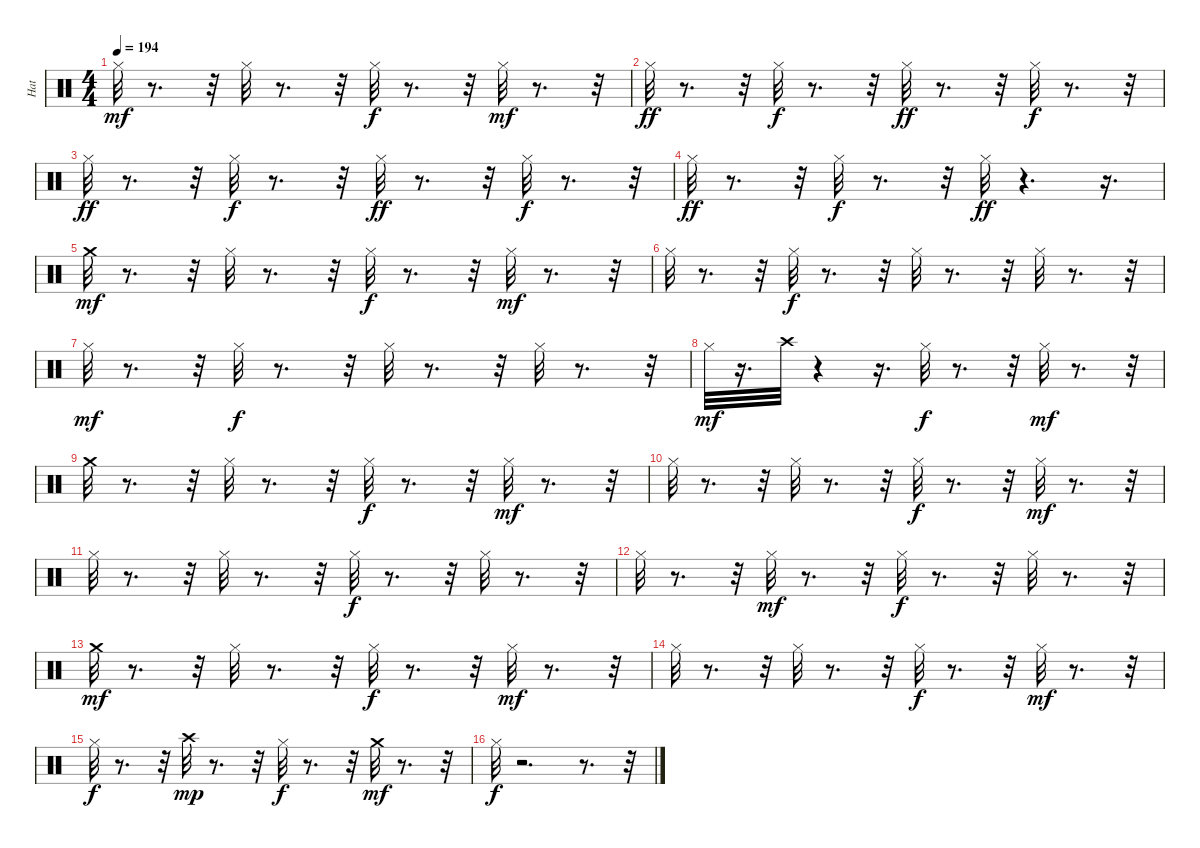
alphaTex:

\track ("Hat" "Hat") {instrument percussion}
\staff {score}
\articulation defaults
\ts (4 4)
\tempo 194
\clef neutral
\ks c "Hi-Hat (closed)".32{dy mf}
r.8{d} r.32 "Hi-Hat (closed)".32 r.8{d} r.32 "Hi-Hat (closed)".32{dy f} r.8{d} r.32 "Hi-Hat (closed)".32{dy mf} r.8{d} r.32 |
"Hi-Hat (closed)".32{dy ff} r.8{d} r.32 "Hi-Hat (closed)".32{dy f} r.8{d} r.32 "Hi-Hat (closed)".32{dy ff} r.8{d} r.32 "Hi-Hat (closed)".32{dy f} r.8{d} r.32 |
"Hi-Hat (closed)".32{dy ff} r.8{d} r.32 "Hi-Hat (closed)".32{dy f} r.8{d} r.32 "Hi-Hat (closed)".32{dy ff} r.8{d} r.32 "Hi-Hat (closed)".32{dy f} r.8{d} r.32 |
"Hi-Hat (closed)".32{dy ff} r.8{d} r.32 "Hi-Hat (closed)".32{dy f} r.8{d} r.32 "Hi-Hat (closed)".32{dy ff} r.4{d} r.16{d} |
"Crash medium (hit)".32{dy mf} r.8{d} r.32 "Hi-Hat (closed)".32 r.8{d} r.32 "Hi-Hat (closed)".32{dy f} r.8{d} r.32 "Hi-Hat (closed)".32{dy mf} r.8{d} r.32 |
"Hi-Hat (closed)".32 r.8{d} r.32 "Hi-Hat (closed)".32{dy f} r.8{d} r.32 "Hi-Hat (closed)".32 r.8{d} r.32 "Hi-Hat (closed)".32 r.8{d} r.32 |
"Hi-Hat (closed)".32{dy mf} r.8{d} r.32 "Hi-Hat (closed)".32{dy f} r.8{d} r.32 "Hi-Hat (closed)".32 r.8{d} r.32 "Hi-Hat (closed)".32 r.8{d} r.32 |
"Hi-Hat (closed)".32{dy mf} r.16{d} "Crash high (hit)".32 r.4 r.16{d} "Hi-Hat (closed)".32{dy f} r.8{d} r.32 "Hi-Hat (closed)".32{dy mf} r.8{d} r.32 |
"Crash medium (hit)".32 r.8{d} r.32 "Hi-Hat (closed)".32 r.8{d} r.32 "Hi-Hat (closed)".32{dy f} r.8{d} r.32 "Hi-Hat (closed)".32{dy mf} r.8{d} r.32 |
"Hi-Hat (closed)".32 r.8{d} r.32 "Hi-Hat (closed)".32 r.8{d} r.32 "Hi-Hat (closed)".32{dy f} r.8{d} r.32 "Hi-Hat (closed)".32{dy mf} r.8{d} r.32 |
"Hi-Hat (closed)".32 r.8{d} r.32 "Hi-Hat (closed)".32 r.8{d} r.32 "Hi-Hat (closed)".32{dy f} r.8{d} r.32 "Hi-Hat (closed)".32 r.8{d} r.32 |
"Hi-Hat (closed)".32 r.8{d} r.32 "Hi-Hat (closed)".32{dy mf} r.8{d} r.32 "Hi-Hat (closed)".32{dy f} r.8{d} r.32 "Hi-Hat (closed)".32 r.8{d} r.32 |
"Crash medium (hit)".32{dy mf} r.8{d} r.32 "Hi-Hat (closed)".32 r.8{d} r.32 "Hi-Hat (closed)".32{dy f} r.8{d} r.32 "Hi-Hat (closed)".32{dy mf} r.8{d} r.32 |
"Hi-Hat (closed)".32 r.8{d} r.32 "Hi-Hat (closed)".32 r.8{d} r.32 "Hi-Hat (closed)".32{dy f} r.8{d} r.32 "Hi-Hat (closed)".32{dy mf} r.8{d} r.32 |
"Hi-Hat (closed)".32{dy f} r.8{d} r.32 "Crash high (hit)".32{dy mp} r.8{d} r.32 "Hi-Hat (closed)".32{dy f} r.8{d} r.32 "Crash medium (hit)".32{dy mf} r.8{d} r.32 |
"Hi-Hat (closed)".32{dy f} r.2{d} r.8{d} r.32
